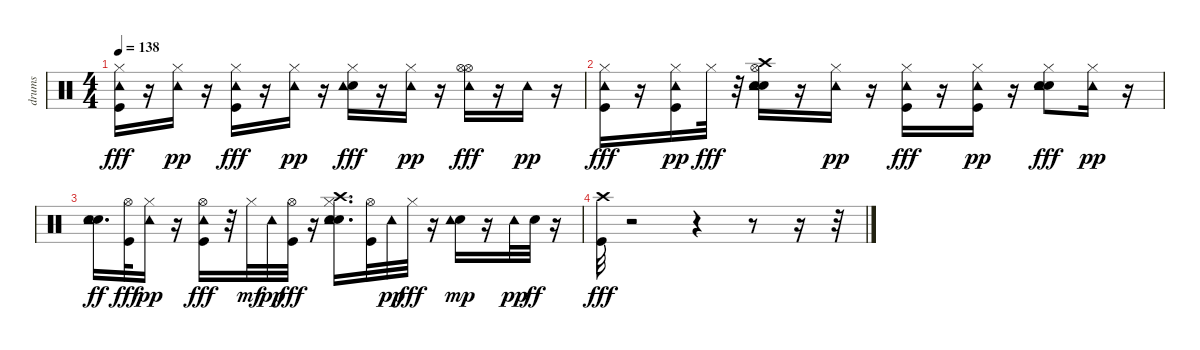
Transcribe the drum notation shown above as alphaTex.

\track ("drums" "drums") {instrument percussion}
\staff {score}
\articulation defaults
\ts (4 4)
\tempo 138
\clef neutral
\ks c
("Hi-Hat (closed)" "Kick (hit)" "Tambourine (hit)").16{dy fff} r.16 ("Hi-Hat (closed)" "Tambourine (hit)").16{dy pp} r.16 ("Hi-Hat (closed)" "Kick (hit)" "Tambourine (hit)").16{dy fff} r.16 ("Hi-Hat (closed)" "Tambourine (hit)").16{dy pp} r.16 ("Metronome (bell)" "Hi-Hat (closed)" "Tambourine (hit)").16{dy fff} r.16 ("Hi-Hat (closed)" "Tambourine (hit)").16{dy pp} r.16 ("Hi-Hat (open)" "Hi-Hat (open)" "Tambourine (hit)").16{dy fff} r.16 "Tambourine (hit)".16{dy pp} r.16 |
("Hi-Hat (closed)" "Kick (hit)" "Tambourine (hit)").16{dy fff} r.16 ("Kick (hit)" "Hi-Hat (closed)" "Tambourine (hit)").16{dy pp} "Hi-Hat (closed)".32{dy fff} r.32 ("Metronome (bell)" "Metronome (bell)" "Crash high (hit)" "Hi-Hat (open)" "Tambourine (hit)").16 r.16 ("Hi-Hat (closed)" "Tambourine (hit)").16{dy pp} r.16 ("Kick (hit)" "Hi-Hat (closed)" "Tambourine (hit)").16{dy fff} r.16 ("Kick (hit)" "Hi-Hat (closed)" "Tambourine (hit)").16{dy pp} r.16 ("Metronome (bell)" "Metronome (bell)" "Hi-Hat (closed)" "Tambourine (hit)").8{dy fff} ("Hi-Hat (closed)" "Tambourine (hit)").16{dy pp} r.16 |
("Metronome (bell)" "Tambourine (hit)" "Metronome (bell)").16{d dy ff} ("Hi-Hat (open)" "Kick (hit)").32{dy fff} ("Hi-Hat (closed)" "Tambourine (hit)").16{dy pp} r.16 ("Hi-Hat (open)" "Kick (hit)" "Tambourine (hit)").16{dy fff} r.32 "Hi-Hat (closed)".32{dy mf} "Tambourine (hit)".32{dy pp} ("Hi-Hat (open)" "Kick (hit)").32{dy fff} r.16 ("Metronome (bell)" "Hi-Hat (closed)" "Metronome (bell)" "Crash high (hit)" "Tambourine (hit)").16{d} ("Hi-Hat (open)" "Kick (hit)").32 "Tambourine (hit)".32{dy pp} "Hi-Hat (closed)".32{dy fff} r.16 ("Metronome (bell)" "Tambourine (hit)").16{dy mp} r.16 "Tambourine (hit)".32{dy pp} "Metronome (bell)".32{dy ff} r.16 |
("Crash high (hit)" "Kick (hit)").32{dy fff} r.2 r.4 r.8 r.16 r.32
